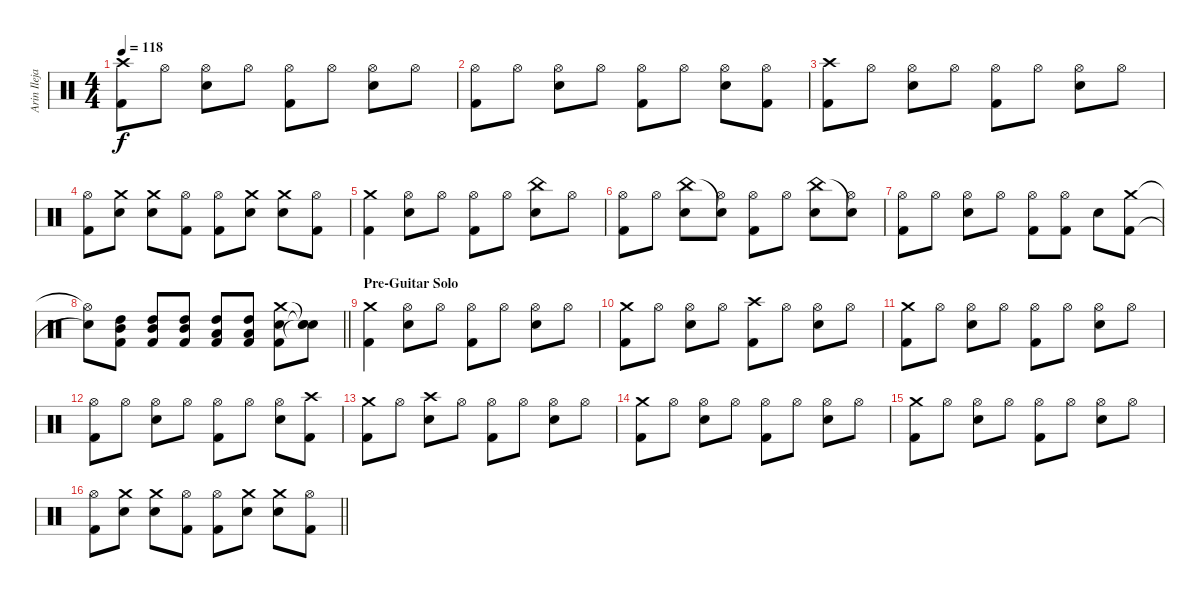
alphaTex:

\track ("Arin Ilejay" "Arin Ileja") {instrument percussion bank 164}
\staff {score}
\articulation defaults
\ts (4 4)
\tempo 118
\clef neutral
\ks c
("Crash high (hit)" "Kick (hit) 2").8{dy f} "Hi-Hat (open)".8 ("Hi-Hat (open)" "Electric Snare (hit)").8 "Hi-Hat (open)".8 ("Hi-Hat (open)" "Kick (hit) 2").8 "Hi-Hat (open)".8 ("Hi-Hat (open)" "Electric Snare (hit)").8 "Hi-Hat (open)".8 |
("Hi-Hat (open)" "Kick (hit) 2").8 "Hi-Hat (open)".8 ("Hi-Hat (open)" "Electric Snare (hit)").8 "Hi-Hat (open)".8 ("Hi-Hat (open)" "Kick (hit) 2").8 "Hi-Hat (open)".8 ("Hi-Hat (open)" "Electric Snare (hit)").8 ("Hi-Hat (open)" "Kick (hit) 2").8 |
("Crash high (hit)" "Kick (hit) 2").8 "Hi-Hat (open)".8 ("Hi-Hat (open)" "Electric Snare (hit)").8 "Hi-Hat (open)".8 ("Hi-Hat (open)" "Kick (hit) 2").8 "Hi-Hat (open)".8 ("Hi-Hat (open)" "Electric Snare (hit)").8 "Hi-Hat (open)".8 |
("Hi-Hat (open)" "Kick (hit) 2").8 ("Crash medium (hit)" "Electric Snare (hit)").8 ("Crash medium (hit)" "Electric Snare (hit)").8 ("Hi-Hat (open)" "Kick (hit) 2").8 ("Hi-Hat (open)" "Kick (hit) 2").8 ("Crash medium (hit)" "Electric Snare (hit)").8 ("Crash medium (hit)" "Electric Snare (hit)").8 ("Hi-Hat (open)" "Kick (hit) 2").8 |
("Crash medium (hit)" "Kick (hit) 2").4 ("Hi-Hat (open)" "Electric Snare (hit)").8 "Hi-Hat (open)".8 ("Hi-Hat (open)" "Kick (hit) 2").8 "Hi-Hat (open)".8 ("China (hit)" "Electric Snare (hit)").8 "Hi-Hat (open)".8 |
("Hi-Hat (open)" "Kick (hit) 2").8 "Hi-Hat (open)".8 ("China (hit)" "Electric Snare (hit)").8 ("Snare (hit)"{t} "Hi-Hat (open)").8 ("Hi-Hat (open)" "Kick (hit) 2").8 "Hi-Hat (open)".8 ("China (hit)" "Electric Snare (hit)").8 ("Snare (hit)"{t} "Hi-Hat (open)").8 |
("Hi-Hat (open)" "Kick (hit) 2").8 "Hi-Hat (open)".8 ("Hi-Hat (open)" "Electric Snare (hit)").8 "Hi-Hat (open)".8 ("Hi-Hat (open)" "Kick (hit) 2").8 ("Hi-Hat (open)" "Kick (hit) 2").8 "Electric Snare (hit)".8 ("Crash medium (hit)" "Kick (hit) 2").8 |
\barLineRight lightlight
("Hi-Hat (open)"{t} "Snare (hit)"{t}).8 ("Mid Tom (hit)" "High Tom (hit)" "Kick (hit) 2").8 ("Mid Tom (hit)" "High Tom (hit)" "Kick (hit) 2").8 ("Mid Tom (hit)" "High Tom (hit)" "Kick (hit) 2").8 ("Low Tom (hit)" "High Tom (hit)" "Kick (hit) 2").8 ("Low Tom (hit)" "High Tom (hit)" "Kick (hit) 2").8 ("Crash medium (hit)" "Electric Snare (hit)" "Kick (hit) 2").8 ("Snare (hit)"{t} "Snare (hit)"{t} "Snare (hit)"{t}).8 |
\section ("" "Pre-Guitar Solo")
("Crash medium (hit)" "Kick (hit) 2").4 ("Hi-Hat (open)" "Electric Snare (hit)").8 "Hi-Hat (open)".8 ("Hi-Hat (open)" "Kick (hit) 2").8 "Hi-Hat (open)".8 ("Hi-Hat (open)" "Electric Snare (hit)").8 "Hi-Hat (open)".8 |
("Crash medium (hit)" "Kick (hit) 2").8 "Hi-Hat (open)".8 ("Hi-Hat (open)" "Electric Snare (hit)").8 "Hi-Hat (open)".8 ("Crash high (hit)" "Kick (hit) 2").8 "Hi-Hat (open)".8 ("Hi-Hat (open)" "Electric Snare (hit)").8 "Hi-Hat (open)".8 |
("Crash medium (hit)" "Kick (hit) 2").8 "Hi-Hat (open)".8 ("Hi-Hat (open)" "Electric Snare (hit)").8 "Hi-Hat (open)".8 ("Hi-Hat (open)" "Kick (hit) 2").8 "Hi-Hat (open)".8 ("Hi-Hat (open)" "Electric Snare (hit)").8 "Hi-Hat (open)".8 |
("Hi-Hat (open)" "Kick (hit) 2").8 "Hi-Hat (open)".8 ("Hi-Hat (open)" "Electric Snare (hit)").8 "Hi-Hat (open)".8 ("Hi-Hat (open)" "Kick (hit) 2").8 "Hi-Hat (open)".8 ("Hi-Hat (open)" "Electric Snare (hit)").8 ("Crash high (hit)" "Kick (hit) 2").8 |
("Crash medium (hit)" "Kick (hit) 2").8 "Hi-Hat (open)".8 ("Crash high (hit)" "Electric Snare (hit)").8 "Hi-Hat (open)".8 ("Hi-Hat (open)" "Kick (hit) 2").8 "Hi-Hat (open)".8 ("Hi-Hat (open)" "Electric Snare (hit)").8 "Hi-Hat (open)".8 |
("Crash medium (hit)" "Kick (hit) 2").8 "Hi-Hat (open)".8 ("Hi-Hat (open)" "Electric Snare (hit)").8 "Hi-Hat (open)".8 ("Hi-Hat (open)" "Kick (hit) 2").8 "Hi-Hat (open)".8 ("Hi-Hat (open)" "Electric Snare (hit)").8 "Hi-Hat (open)".8 |
("Crash medium (hit)" "Kick (hit) 2").8 "Hi-Hat (open)".8 ("Hi-Hat (open)" "Electric Snare (hit)").8 "Hi-Hat (open)".8 ("Hi-Hat (open)" "Kick (hit) 2").8 "Hi-Hat (open)".8 ("Hi-Hat (open)" "Electric Snare (hit)").8 "Hi-Hat (open)".8 |
\barLineRight lightlight
("Hi-Hat (open)" "Kick (hit) 2").8 ("Crash medium (hit)" "Electric Snare (hit)").8 ("Crash medium (hit)" "Electric Snare (hit)").8 ("Hi-Hat (open)" "Kick (hit) 2").8 ("Hi-Hat (open)" "Kick (hit) 2").8 ("Crash medium (hit)" "Electric Snare (hit)").8 ("Crash medium (hit)" "Electric Snare (hit)").8 ("Hi-Hat (open)" "Kick (hit) 2").8
